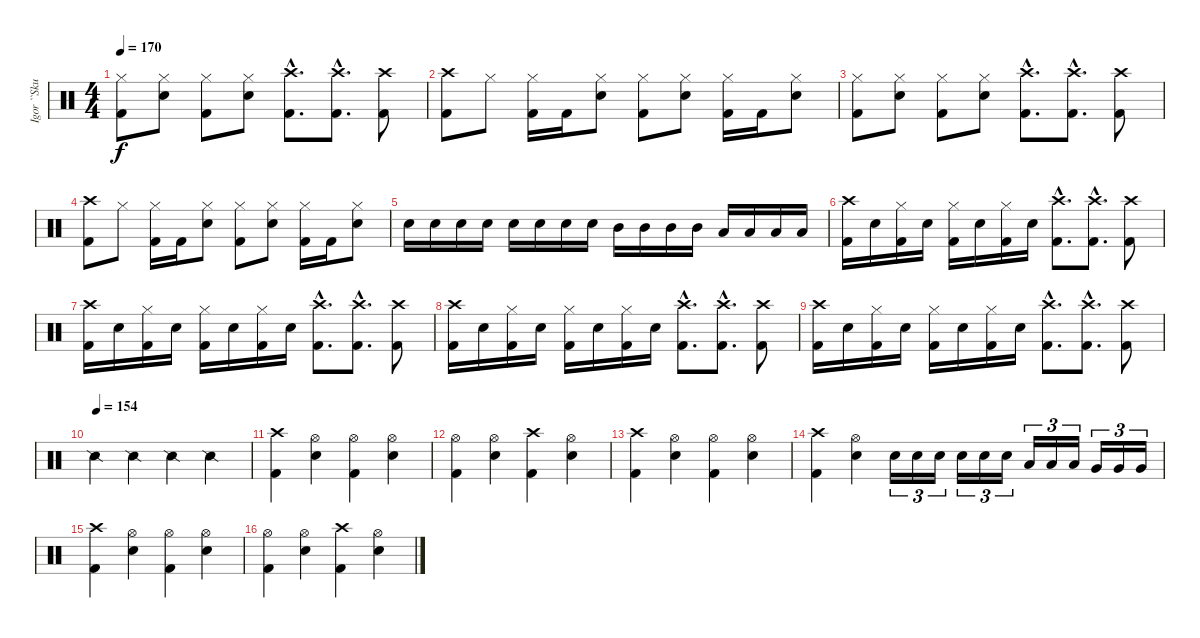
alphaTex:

\track ("Igor ``Skullcrusher`` Cavalera" "Igor ``Sku") {instrument percussion}
\staff {score}
\articulation defaults
\ts (4 4)
\tempo 170
\clef neutral
\ks c
("Hi-Hat (closed)" "Kick (hit) 2").8{dy f} ("Hi-Hat (closed)" "Electric Snare (hit)").8 ("Hi-Hat (closed)" "Kick (hit) 2").8 ("Hi-Hat (closed)" "Electric Snare (hit)").8 ("Crash high (hit)"{hac} "Kick (hit) 2"{hac}).8{d} ("Crash high (hit)"{hac} "Kick (hit) 2"{hac}).8{d} ("Crash high (hit)" "Kick (hit) 2").8 |
("Crash high (hit)" "Kick (hit) 2").8 "Hi-Hat (closed)".8 ("Hi-Hat (closed)" "Kick (hit) 2").16 "Kick (hit) 2".16 ("Hi-Hat (closed)" "Electric Snare (hit)").8 ("Hi-Hat (closed)" "Kick (hit) 2").8 ("Hi-Hat (closed)" "Electric Snare (hit)").8 ("Hi-Hat (closed)" "Kick (hit) 2").16 "Kick (hit) 2".16 ("Hi-Hat (closed)" "Electric Snare (hit)").8 |
("Hi-Hat (closed)" "Kick (hit) 2").8 ("Hi-Hat (closed)" "Electric Snare (hit)").8 ("Hi-Hat (closed)" "Kick (hit) 2").8 ("Hi-Hat (closed)" "Electric Snare (hit)").8 ("Crash high (hit)"{hac} "Kick (hit) 2"{hac}).8{d} ("Crash high (hit)"{hac} "Kick (hit) 2"{hac}).8{d} ("Crash high (hit)" "Kick (hit) 2").8 |
("Crash high (hit)" "Kick (hit) 2").8 "Hi-Hat (closed)".8 ("Hi-Hat (closed)" "Kick (hit) 2").16 "Kick (hit) 2".16 ("Hi-Hat (closed)" "Electric Snare (hit)").8 ("Hi-Hat (closed)" "Kick (hit) 2").8 ("Hi-Hat (closed)" "Electric Snare (hit)").8 ("Hi-Hat (closed)" "Kick (hit) 2").16 "Kick (hit) 2".16 ("Hi-Hat (closed)" "Electric Snare (hit)").8 |
"Electric Snare (hit)".16 "Electric Snare (hit)".16 "Electric Snare (hit)".16 "Electric Snare (hit)".16 "Electric Snare (hit)".16 "Electric Snare (hit)".16 "Electric Snare (hit)".16 "Electric Snare (hit)".16 "Mid Tom (hit)".16 "Mid Tom (hit)".16 "Mid Tom (hit)".16 "Mid Tom (hit)".16 "Low Tom (hit)".16 "Low Tom (hit)".16 "Low Tom (hit)".16 "Low Tom (hit)".16 |
("Crash high (hit)" "Kick (hit) 2").16 "Electric Snare (hit)".16 ("Hi-Hat (closed)" "Kick (hit) 2").16 "Electric Snare (hit)".16 ("Hi-Hat (closed)" "Kick (hit) 2").16 "Electric Snare (hit)".16 ("Hi-Hat (closed)" "Kick (hit) 2").16 "Electric Snare (hit)".16 ("Crash high (hit)"{hac} "Kick (hit) 2"{hac}).8{d} ("Crash high (hit)"{hac} "Kick (hit) 2"{hac}).8{d} ("Crash high (hit)" "Kick (hit) 2").8 |
("Crash high (hit)" "Kick (hit) 2").16 "Electric Snare (hit)".16 ("Hi-Hat (closed)" "Kick (hit) 2").16 "Electric Snare (hit)".16 ("Hi-Hat (closed)" "Kick (hit) 2").16 "Electric Snare (hit)".16 ("Hi-Hat (closed)" "Kick (hit) 2").16 "Electric Snare (hit)".16 ("Crash high (hit)"{hac} "Kick (hit) 2"{hac}).8{d} ("Crash high (hit)"{hac} "Kick (hit) 2"{hac}).8{d} ("Crash high (hit)" "Kick (hit) 2").8 |
("Crash high (hit)" "Kick (hit) 2").16 "Electric Snare (hit)".16 ("Hi-Hat (closed)" "Kick (hit) 2").16 "Electric Snare (hit)".16 ("Hi-Hat (closed)" "Kick (hit) 2").16 "Electric Snare (hit)".16 ("Hi-Hat (closed)" "Kick (hit) 2").16 "Electric Snare (hit)".16 ("Crash high (hit)"{hac} "Kick (hit) 2"{hac}).8{d} ("Crash high (hit)"{hac} "Kick (hit) 2"{hac}).8{d} ("Crash high (hit)" "Kick (hit) 2").8 |
("Crash high (hit)" "Kick (hit) 2").16 "Electric Snare (hit)".16 ("Hi-Hat (closed)" "Kick (hit) 2").16 "Electric Snare (hit)".16 ("Hi-Hat (closed)" "Kick (hit) 2").16 "Electric Snare (hit)".16 ("Hi-Hat (closed)" "Kick (hit) 2").16 "Electric Snare (hit)".16 ("Crash high (hit)"{hac} "Kick (hit) 2"{hac}).8{d} ("Crash high (hit)"{hac} "Kick (hit) 2"{hac}).8{d} ("Crash high (hit)" "Kick (hit) 2").8 |
\tempo (154)
"Snare (side stick) 2".4 "Snare (side stick) 2".4 "Snare (side stick) 2".4 "Snare (side stick) 2".4 |
("Crash high (hit)" "Kick (hit) 2").4 ("Hi-Hat (open)" "Electric Snare (hit)").4 ("Hi-Hat (open)" "Kick (hit) 2").4 ("Hi-Hat (open)" "Electric Snare (hit)").4 |
("Hi-Hat (open)" "Kick (hit) 2").4 ("Hi-Hat (open)" "Electric Snare (hit)").4 ("Crash high (hit)" "Kick (hit) 2").4 ("Hi-Hat (open)" "Electric Snare (hit)").4 |
("Crash high (hit)" "Kick (hit) 2").4 ("Hi-Hat (open)" "Electric Snare (hit)").4 ("Hi-Hat (open)" "Kick (hit) 2").4 ("Hi-Hat (open)" "Electric Snare (hit)").4 |
("Crash high (hit)" "Kick (hit) 2").4 ("Hi-Hat (open)" "Electric Snare (hit)").4 "Electric Snare (hit)".16{tu (3 2)} "Electric Snare (hit)".16{tu (3 2)} "Electric Snare (hit)".16{tu (3 2)} "Electric Snare (hit)".16{tu (3 2)} "Electric Snare (hit)".16{tu (3 2)} "Electric Snare (hit)".16{tu (3 2)} "Low Tom (hit)".16{tu (3 2)} "Low Tom (hit)".16{tu (3 2)} "Low Tom (hit)".16{tu (3 2)} "Very Low Tom (hit)".16{tu (3 2)} "Very Low Tom (hit)".16{tu (3 2)} "Very Low Tom (hit)".16{tu (3 2)} |
("Crash high (hit)" "Kick (hit) 2").4 ("Hi-Hat (open)" "Electric Snare (hit)").4 ("Hi-Hat (open)" "Kick (hit) 2").4 ("Hi-Hat (open)" "Electric Snare (hit)").4 |
("Hi-Hat (open)" "Kick (hit) 2").4 ("Hi-Hat (open)" "Electric Snare (hit)").4 ("Crash high (hit)" "Kick (hit) 2").4 ("Hi-Hat (open)" "Electric Snare (hit)").4
